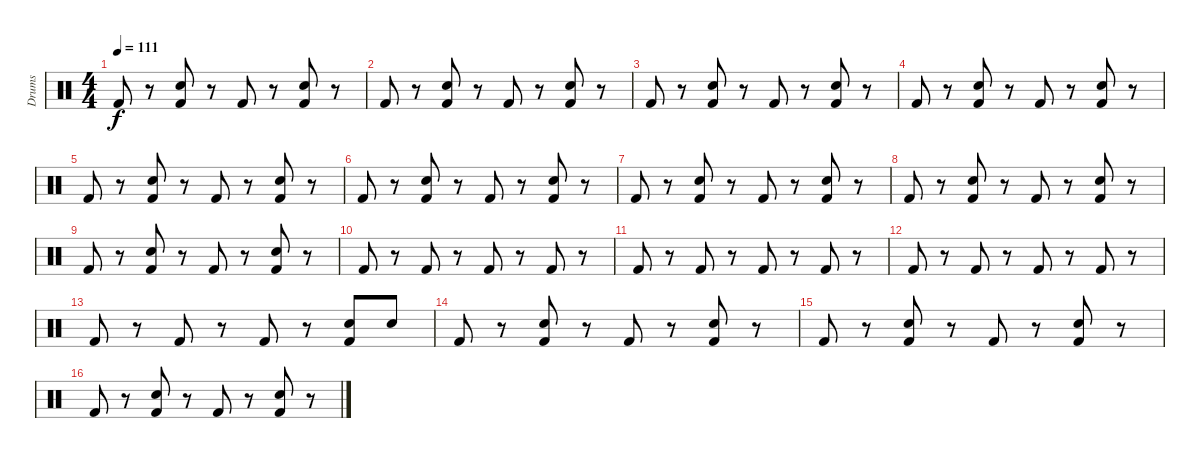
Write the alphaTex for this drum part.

\track ("Drums" "Drums") {instrument percussion}
\staff {score}
\articulation defaults
\ts (4 4)
\tempo 111
\clef neutral
\ks c "Kick (hit) 2".8{dy f}
r.8 ("Kick (hit) 2" "Electric Snare (hit)").8 r.8 "Kick (hit) 2".8 r.8 ("Kick (hit) 2" "Electric Snare (hit)").8 r.8 |
"Kick (hit) 2".8 r.8 ("Kick (hit) 2" "Electric Snare (hit)").8 r.8 "Kick (hit) 2".8 r.8 ("Kick (hit) 2" "Electric Snare (hit)").8 r.8 |
"Kick (hit) 2".8 r.8 ("Kick (hit) 2" "Electric Snare (hit)").8 r.8 "Kick (hit) 2".8 r.8 ("Kick (hit) 2" "Electric Snare (hit)").8 r.8 |
"Kick (hit) 2".8 r.8 ("Kick (hit) 2" "Electric Snare (hit)").8 r.8 "Kick (hit) 2".8 r.8 ("Kick (hit) 2" "Electric Snare (hit)").8 r.8 |
"Kick (hit) 2".8 r.8 ("Kick (hit) 2" "Electric Snare (hit)").8 r.8 "Kick (hit) 2".8 r.8 ("Kick (hit) 2" "Electric Snare (hit)").8 r.8 |
"Kick (hit) 2".8 r.8 ("Kick (hit) 2" "Electric Snare (hit)").8 r.8 "Kick (hit) 2".8 r.8 ("Kick (hit) 2" "Electric Snare (hit)").8 r.8 |
"Kick (hit) 2".8 r.8 ("Kick (hit) 2" "Electric Snare (hit)").8 r.8 "Kick (hit) 2".8 r.8 ("Kick (hit) 2" "Electric Snare (hit)").8 r.8 |
"Kick (hit) 2".8 r.8 ("Kick (hit) 2" "Electric Snare (hit)").8 r.8 "Kick (hit) 2".8 r.8 ("Kick (hit) 2" "Electric Snare (hit)").8 r.8 |
"Kick (hit) 2".8 r.8 ("Kick (hit) 2" "Electric Snare (hit)").8 r.8 "Kick (hit) 2".8 r.8 ("Kick (hit) 2" "Electric Snare (hit)").8 r.8 |
"Kick (hit) 2".8 r.8 "Kick (hit) 2".8 r.8 "Kick (hit) 2".8 r.8 "Kick (hit) 2".8 r.8 |
"Kick (hit) 2".8 r.8 "Kick (hit) 2".8 r.8 "Kick (hit) 2".8 r.8 "Kick (hit) 2".8 r.8 |
"Kick (hit) 2".8 r.8 "Kick (hit) 2".8 r.8 "Kick (hit) 2".8 r.8 "Kick (hit) 2".8 r.8 |
"Kick (hit) 2".8 r.8 "Kick (hit) 2".8 r.8 "Kick (hit) 2".8 r.8 ("Electric Snare (hit)" "Kick (hit) 2").8 "Electric Snare (hit)".8 |
"Kick (hit) 2".8 r.8 ("Electric Snare (hit)" "Kick (hit) 2").8 r.8 "Kick (hit) 2".8 r.8 ("Kick (hit) 2" "Electric Snare (hit)").8 r.8 |
"Kick (hit) 2".8 r.8 ("Kick (hit) 2" "Electric Snare (hit)").8 r.8 "Kick (hit) 2".8 r.8 ("Kick (hit) 2" "Electric Snare (hit)").8 r.8 |
"Kick (hit) 2".8 r.8 ("Kick (hit) 2" "Electric Snare (hit)").8 r.8 "Kick (hit) 2".8 r.8 ("Kick (hit) 2" "Electric Snare (hit)").8 r.8
